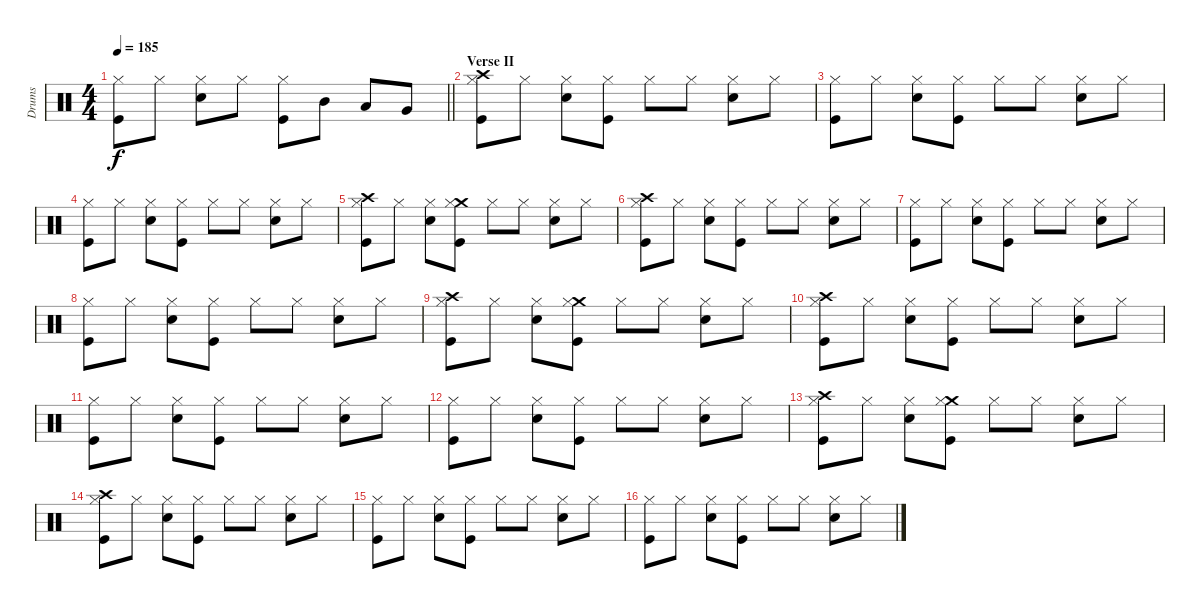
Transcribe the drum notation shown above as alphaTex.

\track ("Drums" "Drums") {instrument percussion}
\staff {score}
\articulation defaults
\ts (4 4)
\tempo 185
\clef neutral
\barLineRight lightlight
\ks c
("Kick (hit)" "Hi-Hat (closed)").8{dy f} "Hi-Hat (closed)".8 ("Snare (hit) 2" "Hi-Hat (closed)").8 "Hi-Hat (closed)".8 ("Kick (hit)" "Hi-Hat (closed)").8 "Mid Tom (hit)".8 "Low Tom (hit)".8 "Very Low Tom (hit)".8 |
\section ("" "Verse II")
("Kick (hit)" "Crash high (hit)" "Hi-Hat (closed)").8 "Hi-Hat (closed)".8 ("Snare (hit) 2" "Hi-Hat (closed)").8 ("Kick (hit)" "Hi-Hat (closed)").8 "Hi-Hat (closed)".8 "Hi-Hat (closed)".8 ("Snare (hit) 2" "Hi-Hat (closed)").8 "Hi-Hat (closed)".8 |
("Kick (hit)" "Hi-Hat (closed)").8 "Hi-Hat (closed)".8 ("Snare (hit) 2" "Hi-Hat (closed)").8 ("Kick (hit)" "Hi-Hat (closed)").8 "Hi-Hat (closed)".8 "Hi-Hat (closed)".8 ("Snare (hit) 2" "Hi-Hat (closed)").8 "Hi-Hat (closed)".8 |
("Kick (hit)" "Hi-Hat (closed)").8 "Hi-Hat (closed)".8 ("Snare (hit) 2" "Hi-Hat (closed)").8 ("Kick (hit)" "Hi-Hat (closed)").8 "Hi-Hat (closed)".8 "Hi-Hat (closed)".8 ("Snare (hit) 2" "Hi-Hat (closed)").8 "Hi-Hat (closed)".8 |
("Kick (hit)" "Crash high (hit)" "Hi-Hat (closed)").8 "Hi-Hat (closed)".8 ("Snare (hit) 2" "Hi-Hat (closed)").8 ("Kick (hit)" "Crash medium (hit)" "Hi-Hat (closed)").8 "Hi-Hat (closed)".8 "Hi-Hat (closed)".8 ("Snare (hit) 2" "Hi-Hat (closed)").8 "Hi-Hat (closed)".8 |
("Kick (hit)" "Crash high (hit)" "Hi-Hat (closed)").8 "Hi-Hat (closed)".8 ("Snare (hit) 2" "Hi-Hat (closed)").8 ("Kick (hit)" "Hi-Hat (closed)").8 "Hi-Hat (closed)".8 "Hi-Hat (closed)".8 ("Snare (hit) 2" "Hi-Hat (closed)").8 "Hi-Hat (closed)".8 |
("Kick (hit)" "Hi-Hat (closed)").8 "Hi-Hat (closed)".8 ("Snare (hit) 2" "Hi-Hat (closed)").8 ("Kick (hit)" "Hi-Hat (closed)").8 "Hi-Hat (closed)".8 "Hi-Hat (closed)".8 ("Snare (hit) 2" "Hi-Hat (closed)").8 "Hi-Hat (closed)".8 |
("Kick (hit)" "Hi-Hat (closed)").8 "Hi-Hat (closed)".8 ("Snare (hit) 2" "Hi-Hat (closed)").8 ("Kick (hit)" "Hi-Hat (closed)").8 "Hi-Hat (closed)".8 "Hi-Hat (closed)".8 ("Snare (hit) 2" "Hi-Hat (closed)").8 "Hi-Hat (closed)".8 |
("Kick (hit)" "Crash high (hit)" "Hi-Hat (closed)").8 "Hi-Hat (closed)".8 ("Snare (hit) 2" "Hi-Hat (closed)").8 ("Kick (hit)" "Crash medium (hit)" "Hi-Hat (closed)").8 "Hi-Hat (closed)".8 "Hi-Hat (closed)".8 ("Snare (hit) 2" "Hi-Hat (closed)").8 "Hi-Hat (closed)".8 |
("Kick (hit)" "Crash high (hit)" "Hi-Hat (closed)").8 "Hi-Hat (closed)".8 ("Snare (hit) 2" "Hi-Hat (closed)").8 ("Kick (hit)" "Hi-Hat (closed)").8 "Hi-Hat (closed)".8 "Hi-Hat (closed)".8 ("Snare (hit) 2" "Hi-Hat (closed)").8 "Hi-Hat (closed)".8 |
("Kick (hit)" "Hi-Hat (closed)").8 "Hi-Hat (closed)".8 ("Snare (hit) 2" "Hi-Hat (closed)").8 ("Kick (hit)" "Hi-Hat (closed)").8 "Hi-Hat (closed)".8 "Hi-Hat (closed)".8 ("Snare (hit) 2" "Hi-Hat (closed)").8 "Hi-Hat (closed)".8 |
("Kick (hit)" "Hi-Hat (closed)").8 "Hi-Hat (closed)".8 ("Snare (hit) 2" "Hi-Hat (closed)").8 ("Kick (hit)" "Hi-Hat (closed)").8 "Hi-Hat (closed)".8 "Hi-Hat (closed)".8 ("Snare (hit) 2" "Hi-Hat (closed)").8 "Hi-Hat (closed)".8 |
("Kick (hit)" "Crash high (hit)" "Hi-Hat (closed)").8 "Hi-Hat (closed)".8 ("Snare (hit) 2" "Hi-Hat (closed)").8 ("Kick (hit)" "Crash medium (hit)" "Hi-Hat (closed)").8 "Hi-Hat (closed)".8 "Hi-Hat (closed)".8 ("Snare (hit) 2" "Hi-Hat (closed)").8 "Hi-Hat (closed)".8 |
("Kick (hit)" "Crash high (hit)" "Hi-Hat (closed)").8 "Hi-Hat (closed)".8 ("Snare (hit) 2" "Hi-Hat (closed)").8 ("Kick (hit)" "Hi-Hat (closed)").8 "Hi-Hat (closed)".8 "Hi-Hat (closed)".8 ("Snare (hit) 2" "Hi-Hat (closed)").8 "Hi-Hat (closed)".8 |
("Kick (hit)" "Hi-Hat (closed)").8 "Hi-Hat (closed)".8 ("Snare (hit) 2" "Hi-Hat (closed)").8 ("Kick (hit)" "Hi-Hat (closed)").8 "Hi-Hat (closed)".8 "Hi-Hat (closed)".8 ("Snare (hit) 2" "Hi-Hat (closed)").8 "Hi-Hat (closed)".8 |
("Kick (hit)" "Hi-Hat (closed)").8 "Hi-Hat (closed)".8 ("Snare (hit) 2" "Hi-Hat (closed)").8 ("Kick (hit)" "Hi-Hat (closed)").8 "Hi-Hat (closed)".8 "Hi-Hat (closed)".8 ("Snare (hit) 2" "Hi-Hat (closed)").8 "Hi-Hat (closed)".8
